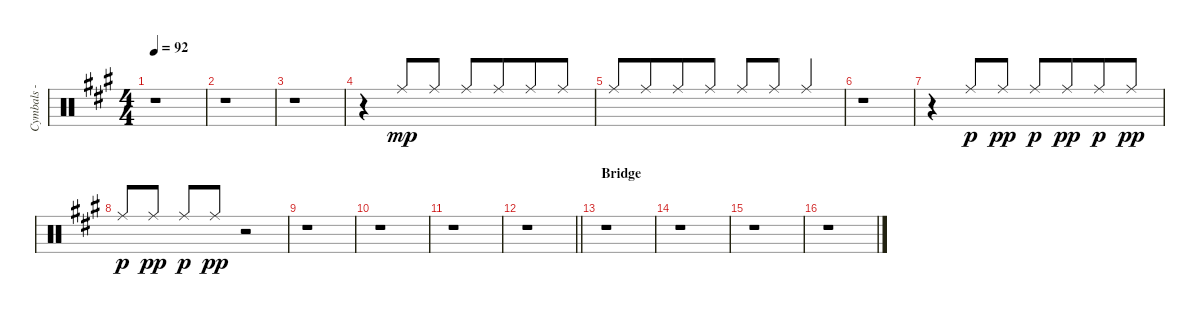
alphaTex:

\track ("Cymbals - ride" "Cymbals - ") {instrument percussion}
\staff {score}
\articulation defaults
\ts (4 4)
\tempo 92
\clef neutral
\ks f#minor
r.1{dy p} |
r.1 |
r.1 |
r.4 "Ride (middle)".8{dy mp beam Up} "Ride (middle)".8{beam Up} "Ride (middle)".8{beam Up} "Ride (middle)".8{beam Up beam merge} "Ride (middle)".8{beam Up} "Ride (middle)".8{beam Up} |
"Ride (middle)".8{beam Up} "Ride (middle)".8{beam Up beam merge} "Ride (middle)".8{beam Up} "Ride (middle)".8{beam Up} "Ride (middle)".8{beam Up} "Ride (middle)".8{beam Up} "Ride (middle)".4{beam Up} |
r.1 |
r.4 "Ride (middle)".8{dy p beam Up} "Ride (middle)".8{dy pp beam Up} "Ride (middle)".8{dy p beam Up} "Ride (middle)".8{dy pp beam Up beam merge} "Ride (middle)".8{dy p beam Up} "Ride (middle)".8{dy pp beam Up} |
"Ride (middle)".8{dy p beam Up} "Ride (middle)".8{dy pp beam Up beam split} "Ride (middle)".8{dy p beam Up} "Ride (middle)".8{dy pp beam Up} r.2 |
r.1 |
r.1 |
r.1 |
\barLineRight lightlight
r.1 |
\section ("" "Bridge")
r.1 |
r.1 |
r.1 |
r.1
